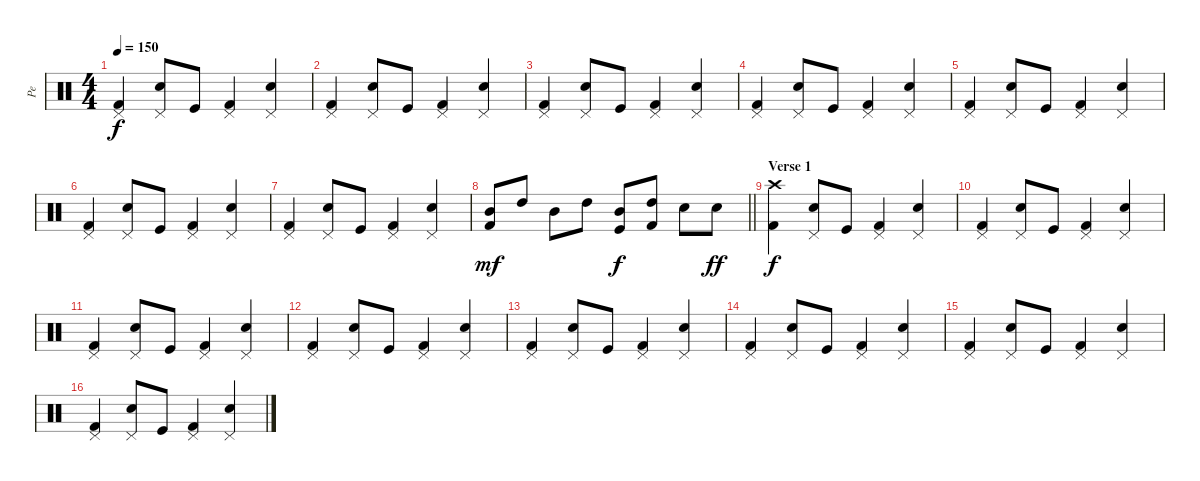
\track ("Pe" "Pe") {instrument percussion}
\staff {score}
\articulation defaults
\ts (4 4)
\tempo 150
\clef neutral
\ks c
("Kick (hit) 2" "Pedal Hi-Hat (hit)").4{dy f} ("Electric Snare (hit)" "Pedal Hi-Hat (hit)").8 "Kick (hit)".8 ("Kick (hit) 2" "Pedal Hi-Hat (hit)").4 ("Electric Snare (hit)" "Pedal Hi-Hat (hit)").4 |
("Kick (hit) 2" "Pedal Hi-Hat (hit)").4 ("Electric Snare (hit)" "Pedal Hi-Hat (hit)").8 "Kick (hit)".8 ("Kick (hit) 2" "Pedal Hi-Hat (hit)").4 ("Electric Snare (hit)" "Pedal Hi-Hat (hit)").4 |
("Kick (hit) 2" "Pedal Hi-Hat (hit)").4 ("Electric Snare (hit)" "Pedal Hi-Hat (hit)").8 "Kick (hit)".8 ("Kick (hit) 2" "Pedal Hi-Hat (hit)").4 ("Electric Snare (hit)" "Pedal Hi-Hat (hit)").4 |
("Kick (hit) 2" "Pedal Hi-Hat (hit)").4 ("Electric Snare (hit)" "Pedal Hi-Hat (hit)").8 "Kick (hit)".8 ("Kick (hit) 2" "Pedal Hi-Hat (hit)").4 ("Electric Snare (hit)" "Pedal Hi-Hat (hit)").4 |
("Kick (hit) 2" "Pedal Hi-Hat (hit)").4 ("Electric Snare (hit)" "Pedal Hi-Hat (hit)").8 "Kick (hit)".8 ("Kick (hit) 2" "Pedal Hi-Hat (hit)").4 ("Electric Snare (hit)" "Pedal Hi-Hat (hit)").4 |
("Kick (hit) 2" "Pedal Hi-Hat (hit)").4 ("Electric Snare (hit)" "Pedal Hi-Hat (hit)").8 "Kick (hit)".8 ("Kick (hit) 2" "Pedal Hi-Hat (hit)").4 ("Electric Snare (hit)" "Pedal Hi-Hat (hit)").4 |
("Kick (hit) 2" "Pedal Hi-Hat (hit)").4 ("Electric Snare (hit)" "Pedal Hi-Hat (hit)").8 "Kick (hit)".8 ("Kick (hit) 2" "Pedal Hi-Hat (hit)").4 ("Electric Snare (hit)" "Pedal Hi-Hat (hit)").4 |
\barLineRight lightlight
("Kick (hit) 2" "Mid Tom (hit)").8{dy mf} "High Tom (hit)".8 "Mid Tom (hit)".8 "High Tom (hit)".8 ("Kick (hit)" "Mid Tom (hit)").8{dy f} ("Kick (hit) 2" "High Tom (hit)").8 "Electric Snare (hit)".8 "Electric Snare (hit)".8{dy ff} |
\section ("" "Verse 1")
("Kick (hit) 2" "Crash high (hit)").4{dy f} ("Electric Snare (hit)" "Pedal Hi-Hat (hit)").8 "Kick (hit)".8 ("Kick (hit) 2" "Pedal Hi-Hat (hit)").4 ("Electric Snare (hit)" "Pedal Hi-Hat (hit)").4 |
("Kick (hit) 2" "Pedal Hi-Hat (hit)").4 ("Electric Snare (hit)" "Pedal Hi-Hat (hit)").8 "Kick (hit)".8 ("Kick (hit) 2" "Pedal Hi-Hat (hit)").4 ("Electric Snare (hit)" "Pedal Hi-Hat (hit)").4 |
("Kick (hit) 2" "Pedal Hi-Hat (hit)").4 ("Electric Snare (hit)" "Pedal Hi-Hat (hit)").8 "Kick (hit)".8 ("Kick (hit) 2" "Pedal Hi-Hat (hit)").4 ("Electric Snare (hit)" "Pedal Hi-Hat (hit)").4 |
("Kick (hit) 2" "Pedal Hi-Hat (hit)").4 ("Electric Snare (hit)" "Pedal Hi-Hat (hit)").8 "Kick (hit)".8 ("Kick (hit) 2" "Pedal Hi-Hat (hit)").4 ("Electric Snare (hit)" "Pedal Hi-Hat (hit)").4 |
("Kick (hit) 2" "Pedal Hi-Hat (hit)").4 ("Electric Snare (hit)" "Pedal Hi-Hat (hit)").8 "Kick (hit)".8 ("Kick (hit) 2" "Pedal Hi-Hat (hit)").4 ("Electric Snare (hit)" "Pedal Hi-Hat (hit)").4 |
("Kick (hit) 2" "Pedal Hi-Hat (hit)").4 ("Electric Snare (hit)" "Pedal Hi-Hat (hit)").8 "Kick (hit)".8 ("Kick (hit) 2" "Pedal Hi-Hat (hit)").4 ("Electric Snare (hit)" "Pedal Hi-Hat (hit)").4 |
("Kick (hit) 2" "Pedal Hi-Hat (hit)").4 ("Electric Snare (hit)" "Pedal Hi-Hat (hit)").8 "Kick (hit)".8 ("Kick (hit) 2" "Pedal Hi-Hat (hit)").4 ("Electric Snare (hit)" "Pedal Hi-Hat (hit)").4 |
("Kick (hit) 2" "Pedal Hi-Hat (hit)").4 ("Electric Snare (hit)" "Pedal Hi-Hat (hit)").8 "Kick (hit)".8 ("Kick (hit) 2" "Pedal Hi-Hat (hit)").4 ("Electric Snare (hit)" "Pedal Hi-Hat (hit)").4
